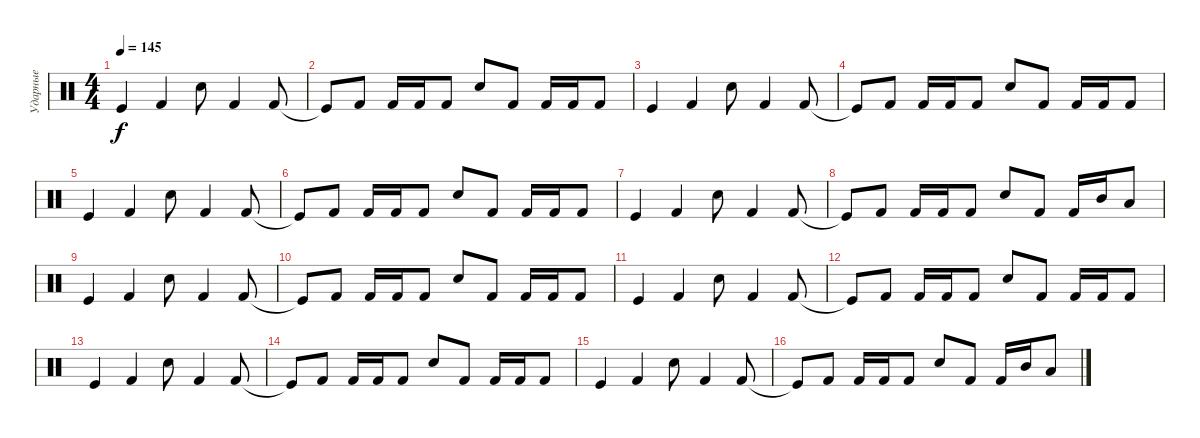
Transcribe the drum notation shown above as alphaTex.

\track ("Ударные" "Ударные") {instrument percussion}
\staff {score}
\articulation defaults
\ts (4 4)
\tempo 145
\clef neutral
\ks c "Kick (hit)".4{dy f} "Kick (hit) 2".4 "Electric Snare (hit)".8 "Kick (hit) 2".4 "Kick (hit) 2".8
|
"Kick (hit)"{t}.8 "Kick (hit) 2".8 "Kick (hit) 2".16 "Kick (hit) 2".16 "Kick (hit) 2".8 "Electric Snare (hit)".8 "Kick (hit) 2".8 "Kick (hit) 2".16 "Kick (hit) 2".16 "Kick (hit) 2".8 |
"Kick (hit)".4 "Kick (hit) 2".4 "Electric Snare (hit)".8 "Kick (hit) 2".4 "Kick (hit) 2".8 |
"Kick (hit)"{t}.8 "Kick (hit) 2".8 "Kick (hit) 2".16 "Kick (hit) 2".16 "Kick (hit) 2".8 "Electric Snare (hit)".8 "Kick (hit) 2".8 "Kick (hit) 2".16 "Kick (hit) 2".16 "Kick (hit) 2".8 |
"Kick (hit)".4 "Kick (hit) 2".4 "Electric Snare (hit)".8 "Kick (hit) 2".4 "Kick (hit) 2".8 |
"Kick (hit)"{t}.8 "Kick (hit) 2".8 "Kick (hit) 2".16 "Kick (hit) 2".16 "Kick (hit) 2".8 "Electric Snare (hit)".8 "Kick (hit) 2".8 "Kick (hit) 2".16 "Kick (hit) 2".16 "Kick (hit) 2".8 |
"Kick (hit)".4 "Kick (hit) 2".4 "Electric Snare (hit)".8 "Kick (hit) 2".4 "Kick (hit) 2".8 |
"Kick (hit)"{t}.8 "Kick (hit) 2".8 "Kick (hit) 2".16 "Kick (hit) 2".16 "Kick (hit) 2".8 "Electric Snare (hit)".8 "Kick (hit) 2".8 "Kick (hit) 2".16 "Mid Tom (hit)".16 "Low Tom (hit)".8 |
"Kick (hit)".4 "Kick (hit) 2".4 "Electric Snare (hit)".8 "Kick (hit) 2".4 "Kick (hit) 2".8 |
"Kick (hit)"{t}.8 "Kick (hit) 2".8 "Kick (hit) 2".16 "Kick (hit) 2".16 "Kick (hit) 2".8 "Electric Snare (hit)".8 "Kick (hit) 2".8 "Kick (hit) 2".16 "Kick (hit) 2".16 "Kick (hit) 2".8 |
"Kick (hit)".4 "Kick (hit) 2".4 "Electric Snare (hit)".8 "Kick (hit) 2".4 "Kick (hit) 2".8 |
"Kick (hit)"{t}.8 "Kick (hit) 2".8 "Kick (hit) 2".16 "Kick (hit) 2".16 "Kick (hit) 2".8 "Electric Snare (hit)".8 "Kick (hit) 2".8 "Kick (hit) 2".16 "Kick (hit) 2".16 "Kick (hit) 2".8 |
"Kick (hit)".4 "Kick (hit) 2".4 "Electric Snare (hit)".8 "Kick (hit) 2".4 "Kick (hit) 2".8 |
"Kick (hit)"{t}.8 "Kick (hit) 2".8 "Kick (hit) 2".16 "Kick (hit) 2".16 "Kick (hit) 2".8 "Electric Snare (hit)".8 "Kick (hit) 2".8 "Kick (hit) 2".16 "Kick (hit) 2".16 "Kick (hit) 2".8 |
"Kick (hit)".4 "Kick (hit) 2".4 "Electric Snare (hit)".8 "Kick (hit) 2".4 "Kick (hit) 2".8 |
"Kick (hit)"{t}.8 "Kick (hit) 2".8 "Kick (hit) 2".16 "Kick (hit) 2".16 "Kick (hit) 2".8 "Electric Snare (hit)".8 "Kick (hit) 2".8 "Kick (hit) 2".16 "Mid Tom (hit)".16 "Low Tom (hit)".8
